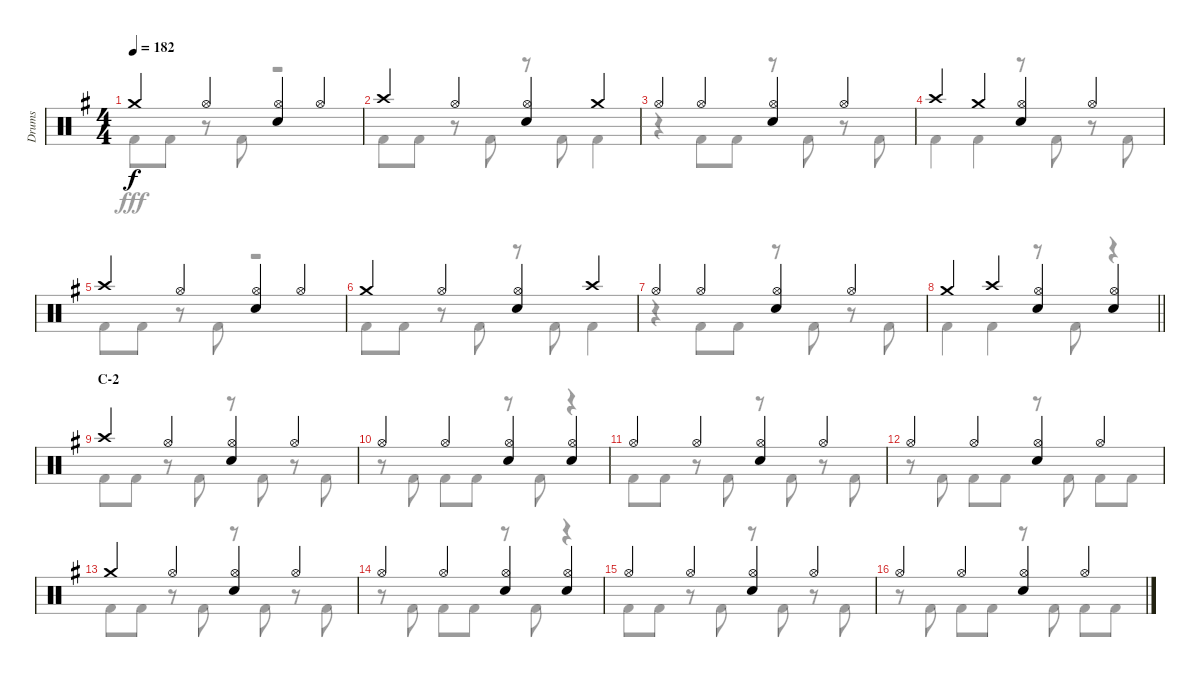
\track ("Drums" "Drums") {instrument percussion}
\staff {score}
\articulation defaults
\voice
\ts (4 4)
\tempo 182
\clef neutral
\ks g "Crash medium (hit)".4{dy f} "Hi-Hat (open)".4
("Hi-Hat (open)" "Snare (hit) 2").4 "Hi-Hat (open)".4 |
"Crash high (hit)".4 "Hi-Hat (open)".4 ("Hi-Hat (open)" "Snare (hit) 2").4 "Crash medium (hit)".4 |
"Hi-Hat (open)".4 "Hi-Hat (open)".4 ("Hi-Hat (open)" "Snare (hit) 2").4 "Hi-Hat (open)".4 |
"Crash high (hit)".4 "Crash medium (hit)".4 ("Hi-Hat (open)" "Snare (hit) 2").4 "Hi-Hat (open)".4 |
"Crash high (hit)".4 "Hi-Hat (open)".4 ("Hi-Hat (open)" "Snare (hit) 2").4 "Hi-Hat (open)".4 |
"Crash medium (hit)".4 "Hi-Hat (open)".4 ("Hi-Hat (open)" "Snare (hit) 2").4 "Crash high (hit)".4 |
"Hi-Hat (open)".4 "Hi-Hat (open)".4 ("Hi-Hat (open)" "Snare (hit) 2").4 "Hi-Hat (open)".4 |
\barLineRight lightlight "Crash medium (hit)".4 "Crash high (hit)".4
("Hi-Hat (open)" "Snare (hit) 2").4 ("Hi-Hat (open)" "Snare (hit) 2").4 |
\section ("" "C-2")
"Crash high (hit)".4 "Hi-Hat (open)".4 ("Hi-Hat (open)" "Snare (hit) 2").4 "Hi-Hat (open)".4 |
"Hi-Hat (open)".4 "Hi-Hat (open)".4 ("Hi-Hat (open)" "Snare (hit) 2").4 ("Hi-Hat (open)" "Snare (hit) 2").4 |
"Hi-Hat (open)".4 "Hi-Hat (open)".4 ("Hi-Hat (open)" "Snare (hit) 2").4 "Hi-Hat (open)".4 |
"Hi-Hat (open)".4 "Hi-Hat (open)".4 ("Hi-Hat (open)" "Snare (hit) 2").4 "Hi-Hat (open)".4 |
"Crash medium (hit)".4 "Hi-Hat (open)".4 ("Hi-Hat (open)" "Snare (hit) 2").4 "Hi-Hat (open)".4 |
"Hi-Hat (open)".4 "Hi-Hat (open)".4 ("Hi-Hat (open)" "Snare (hit) 2").4 ("Hi-Hat (open)" "Snare (hit) 2").4 |
"Hi-Hat (open)".4 "Hi-Hat (open)".4 ("Hi-Hat (open)" "Snare (hit) 2").4 "Hi-Hat (open)".4 |
"Hi-Hat (open)".4 "Hi-Hat (open)".4 ("Hi-Hat (open)" "Snare (hit) 2").4 "Hi-Hat (open)".4
\voice
\clef neutral
\ottava regular
\simile none
\ks g "Kick (hit) 2".8{dy fff} "Kick (hit) 2".8
r.8 "Kick (hit) 2".8 r.2 |
"Kick (hit) 2".8 "Kick (hit) 2".8 r.8 "Kick (hit) 2".8 r.8 "Kick (hit) 2".8 "Kick (hit) 2".4 |
r.4 "Kick (hit) 2".8 "Kick (hit) 2".8 r.8 "Kick (hit) 2".8 r.8 "Kick (hit) 2".8 |
"Kick (hit) 2".4 "Kick (hit) 2".4 r.8 "Kick (hit) 2".8 r.8 "Kick (hit) 2".8 |
"Kick (hit) 2".8 "Kick (hit) 2".8 r.8 "Kick (hit) 2".8 r.2 |
"Kick (hit) 2".8 "Kick (hit) 2".8 r.8 "Kick (hit) 2".8 r.8 "Kick (hit) 2".8 "Kick (hit) 2".4 |
r.4 "Kick (hit) 2".8 "Kick (hit) 2".8 r.8 "Kick (hit) 2".8 r.8 "Kick (hit) 2".8 |
\barLineRight lightlight "Kick (hit) 2".4 "Kick (hit) 2".4
r.8 "Kick (hit) 2".8 r.4 |
"Kick (hit) 2".8 "Kick (hit) 2".8 r.8 "Kick (hit) 2".8 r.8 "Kick (hit) 2".8 r.8 "Kick (hit) 2".8 |
r.8 "Kick (hit) 2".8 "Kick (hit) 2".8 "Kick (hit) 2".8 r.8 "Kick (hit) 2".8 r.4 |
"Kick (hit) 2".8 "Kick (hit) 2".8 r.8 "Kick (hit) 2".8 r.8 "Kick (hit) 2".8 r.8 "Kick (hit) 2".8 |
r.8 "Kick (hit) 2".8 "Kick (hit) 2".8 "Kick (hit) 2".8 r.8 "Kick (hit) 2".8 "Kick (hit) 2".8 "Kick (hit) 2".8 |
"Kick (hit) 2".8 "Kick (hit) 2".8 r.8 "Kick (hit) 2".8 r.8 "Kick (hit) 2".8 r.8 "Kick (hit) 2".8 |
r.8 "Kick (hit) 2".8 "Kick (hit) 2".8 "Kick (hit) 2".8 r.8 "Kick (hit) 2".8 r.4 |
"Kick (hit) 2".8 "Kick (hit) 2".8 r.8 "Kick (hit) 2".8 r.8 "Kick (hit) 2".8 r.8 "Kick (hit) 2".8 |
r.8 "Kick (hit) 2".8 "Kick (hit) 2".8 "Kick (hit) 2".8 r.8 "Kick (hit) 2".8 "Kick (hit) 2".8 "Kick (hit) 2".8
